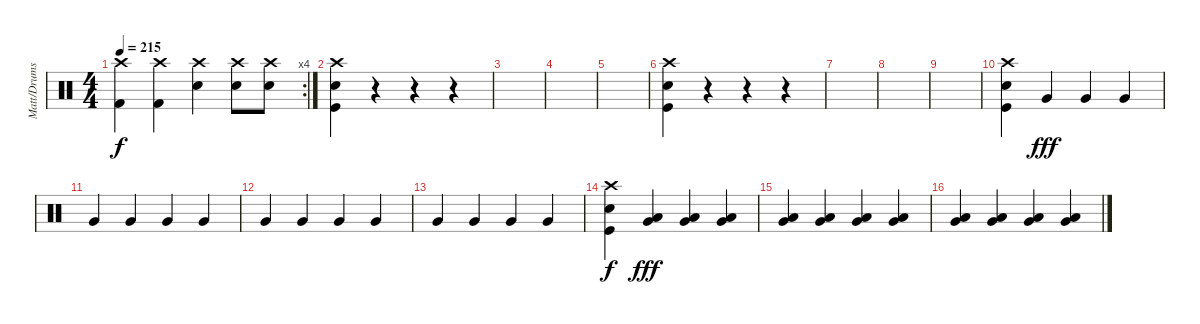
\track ("Matt/Drums" "Matt/Drums") {instrument percussion}
\staff {score}
\articulation defaults
\rc 4
\ts (4 4)
\tempo 215
\clef neutral
\ks c
("Crash high (hit)" "Kick (hit) 2").4{dy f} ("Crash high (hit)" "Kick (hit) 2").4 ("Crash high (hit)" "Electric Snare (hit)").4 ("Crash high (hit)" "Electric Snare (hit)").8 ("Crash high (hit)" "Electric Snare (hit)").8 |
("Crash high (hit)" "Kick (hit)" "Electric Snare (hit)").4 r.4 r.4 r.4 |
|
|
|
("Crash high (hit)" "Kick (hit)" "Electric Snare (hit)").4 r.4 r.4 r.4 |
|
|
|
("Crash high (hit)" "Kick (hit)" "Electric Snare (hit)").4 "Very Low Tom (hit)".4{dy fff} "Very Low Tom (hit)".4 "Very Low Tom (hit)".4 |
"Very Low Tom (hit)".4 "Very Low Tom (hit)".4 "Very Low Tom (hit)".4 "Very Low Tom (hit)".4 |
"Very Low Tom (hit)".4 "Very Low Tom (hit)".4 "Very Low Tom (hit)".4 "Very Low Tom (hit)".4 |
"Very Low Tom (hit)".4 "Very Low Tom (hit)".4 "Very Low Tom (hit)".4 "Very Low Tom (hit)".4 |
("Crash high (hit)" "Kick (hit)" "Electric Snare (hit)").4{dy f} ("Low Tom (hit)" "Very Low Tom (hit)").4{dy fff} ("Low Tom (hit)" "Very Low Tom (hit)").4 ("Low Tom (hit)" "Very Low Tom (hit)").4 |
("Low Tom (hit)" "Very Low Tom (hit)").4 ("Low Tom (hit)" "Very Low Tom (hit)").4 ("Low Tom (hit)" "Very Low Tom (hit)").4 ("Low Tom (hit)" "Very Low Tom (hit)").4 |
("Low Tom (hit)" "Very Low Tom (hit)").4 ("Low Tom (hit)" "Very Low Tom (hit)").4 ("Low Tom (hit)" "Very Low Tom (hit)").4 ("Low Tom (hit)" "Very Low Tom (hit)").4
